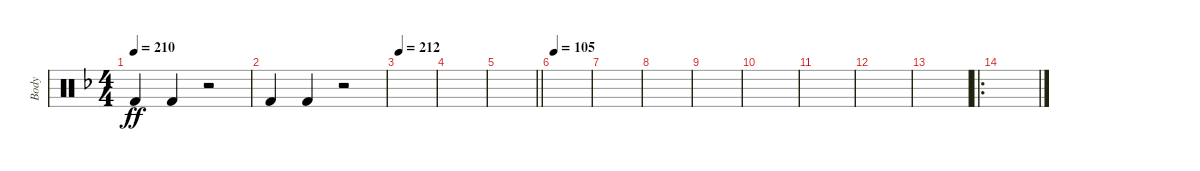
\track ("Body" "Body") {instrument percussion}
\staff {score}
\articulation defaults
\ts (4 4)
\tempo 210
\clef neutral
\ks dminor "Kick (hit) 2".4{dy ff} "Kick (hit) 2".4
r.2 |
"Kick (hit) 2".4 "Kick (hit) 2".4 r.2 |
\tempo 212
|
|
\barLineRight lightlight
|
\tempo 105
|
|
|
|
|
|
|
|
\ro
